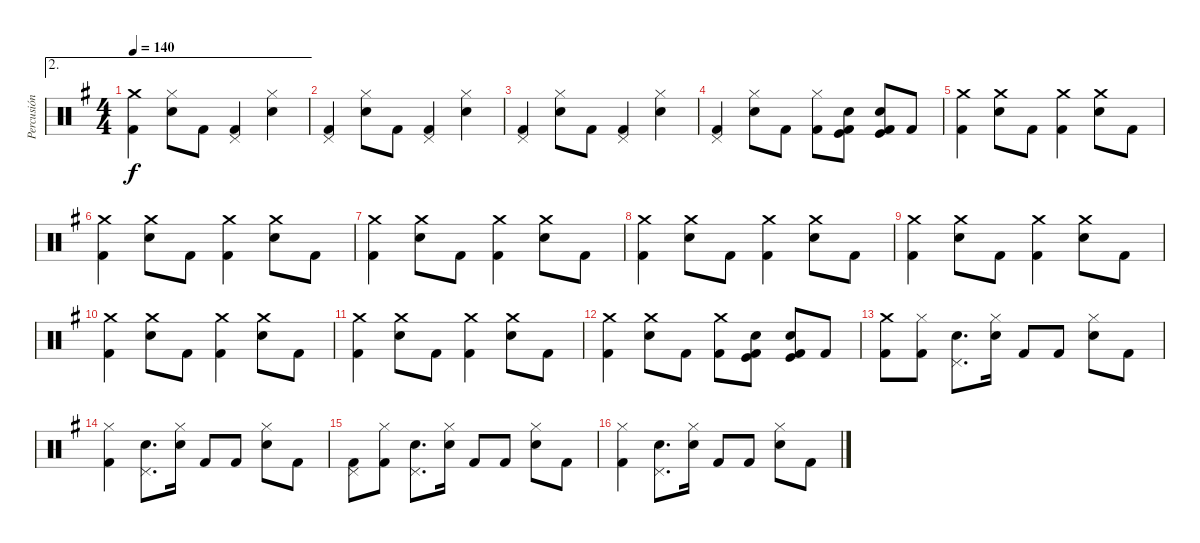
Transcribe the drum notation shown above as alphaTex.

\track ("Percusión" "Percusión") {instrument percussion}
\staff {score}
\articulation defaults
\ae 2
\ts (4 4)
\tempo 140
\clef neutral
\ks g
("Crash medium (hit)" "Kick (hit) 2").4{dy f} ("Hi-Hat (closed)" "Snare (hit) 2").8 "Kick (hit) 2".8 ("Pedal Hi-Hat (hit)" "Kick (hit) 2").4 ("Hi-Hat (closed)" "Snare (hit) 2").4 |
("Pedal Hi-Hat (hit)" "Kick (hit) 2").4 ("Hi-Hat (closed)" "Snare (hit) 2").8 "Kick (hit) 2".8 ("Pedal Hi-Hat (hit)" "Kick (hit) 2").4 ("Hi-Hat (closed)" "Snare (hit) 2").4 |
("Pedal Hi-Hat (hit)" "Kick (hit) 2").4 ("Hi-Hat (closed)" "Snare (hit) 2").8 "Kick (hit) 2".8 ("Pedal Hi-Hat (hit)" "Kick (hit) 2").4 ("Hi-Hat (closed)" "Snare (hit) 2").4 |
("Pedal Hi-Hat (hit)" "Kick (hit) 2").4 ("Hi-Hat (closed)" "Snare (hit) 2").8 "Kick (hit) 2".8 ("Hi-Hat (closed)" "Kick (hit) 2").8 ("Snare (hit) 2" "Kick (hit)" "Kick (hit) 2").8 ("Snare (hit) 2" "Kick (hit)" "Kick (hit) 2").8 "Kick (hit) 2".8 |
("Crash medium (hit)" "Kick (hit) 2").4 ("Crash medium (hit)" "Snare (hit) 2").8 "Kick (hit) 2".8 ("Crash medium (hit)" "Kick (hit) 2").4 ("Crash medium (hit)" "Snare (hit) 2").8 "Kick (hit) 2".8 |
("Crash medium (hit)" "Kick (hit) 2").4 ("Crash medium (hit)" "Snare (hit) 2").8 "Kick (hit) 2".8 ("Crash medium (hit)" "Kick (hit) 2").4 ("Crash medium (hit)" "Snare (hit) 2").8 "Kick (hit) 2".8 |
("Crash medium (hit)" "Kick (hit) 2").4 ("Crash medium (hit)" "Snare (hit) 2").8 "Kick (hit) 2".8 ("Crash medium (hit)" "Kick (hit) 2").4 ("Crash medium (hit)" "Snare (hit) 2").8 "Kick (hit) 2".8 |
("Crash medium (hit)" "Kick (hit) 2").4 ("Crash medium (hit)" "Snare (hit) 2").8 "Kick (hit) 2".8 ("Crash medium (hit)" "Kick (hit) 2").4 ("Crash medium (hit)" "Snare (hit) 2").8 "Kick (hit) 2".8 |
("Crash medium (hit)" "Kick (hit) 2").4 ("Crash medium (hit)" "Snare (hit) 2").8 "Kick (hit) 2".8 ("Crash medium (hit)" "Kick (hit) 2").4 ("Crash medium (hit)" "Snare (hit) 2").8 "Kick (hit) 2".8 |
("Crash medium (hit)" "Kick (hit) 2").4 ("Crash medium (hit)" "Snare (hit) 2").8 "Kick (hit) 2".8 ("Crash medium (hit)" "Kick (hit) 2").4 ("Crash medium (hit)" "Snare (hit) 2").8 "Kick (hit) 2".8 |
("Crash medium (hit)" "Kick (hit) 2").4 ("Crash medium (hit)" "Snare (hit) 2").8 "Kick (hit) 2".8 ("Crash medium (hit)" "Kick (hit) 2").4 ("Crash medium (hit)" "Snare (hit) 2").8 "Kick (hit) 2".8 |
("Crash medium (hit)" "Kick (hit) 2").4 ("Crash medium (hit)" "Snare (hit) 2").8 "Kick (hit) 2".8 ("Crash medium (hit)" "Kick (hit) 2").8 ("Snare (hit) 2" "Kick (hit)" "Kick (hit) 2").8 ("Snare (hit) 2" "Kick (hit)" "Kick (hit) 2").8 "Kick (hit) 2".8 |
("Crash medium (hit)" "Kick (hit) 2").8 ("Hi-Hat (closed)" "Kick (hit) 2").8 ("Pedal Hi-Hat (hit)" "Snare (hit) 2").8{d} ("Hi-Hat (closed)" "Snare (hit) 2").16 "Kick (hit) 2".8 "Kick (hit) 2".8 ("Hi-Hat (closed)" "Snare (hit) 2").8 "Kick (hit) 2".8 |
("Hi-Hat (closed)" "Kick (hit) 2").4 ("Pedal Hi-Hat (hit)" "Snare (hit) 2").8{d} ("Hi-Hat (closed)" "Snare (hit) 2").16 "Kick (hit) 2".8 "Kick (hit) 2".8 ("Hi-Hat (closed)" "Snare (hit) 2").8 "Kick (hit) 2".8 |
("Pedal Hi-Hat (hit)" "Kick (hit) 2").8 ("Hi-Hat (closed)" "Kick (hit) 2").8 ("Pedal Hi-Hat (hit)" "Snare (hit) 2").8{d} ("Hi-Hat (closed)" "Snare (hit) 2").16 "Kick (hit) 2".8 "Kick (hit) 2".8 ("Hi-Hat (closed)" "Snare (hit) 2").8 "Kick (hit) 2".8 |
("Hi-Hat (closed)" "Kick (hit) 2").4 ("Pedal Hi-Hat (hit)" "Snare (hit) 2").8{d} ("Hi-Hat (closed)" "Snare (hit) 2").16 "Kick (hit) 2".8 "Kick (hit) 2".8 ("Hi-Hat (closed)" "Snare (hit) 2").8 "Kick (hit) 2".8
